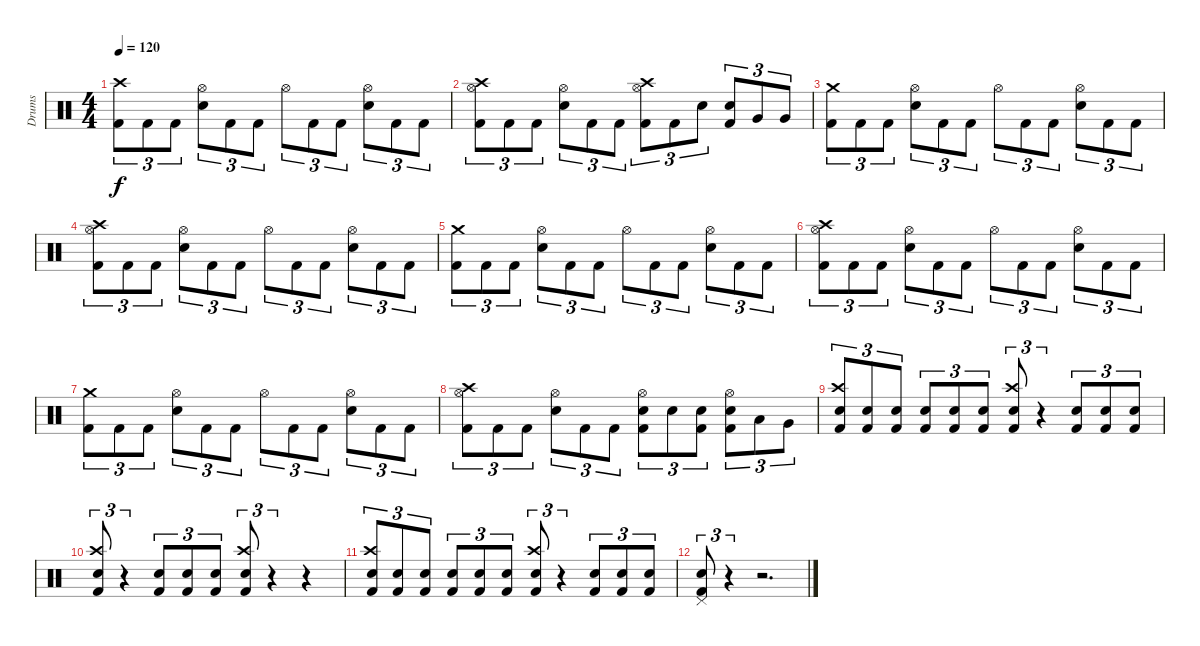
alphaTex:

\track ("Drums" "Drums") {instrument percussion}
\staff {score}
\articulation defaults
\ts (4 4)
\tempo 120
\clef neutral
\ks c
("Kick (hit) 2" "Crash high (hit)").8{tu (3 2) dy f} "Kick (hit) 2".8{tu (3 2)} "Kick (hit) 2".8{tu (3 2)} ("Snare (hit) 2" "Hi-Hat (open)").8{tu (3 2)} "Kick (hit) 2".8{tu (3 2)} "Kick (hit) 2".8{tu (3 2)} "Hi-Hat (open)".8{tu (3 2)} "Kick (hit) 2".8{tu (3 2)} "Kick (hit) 2".8{tu (3 2)} ("Snare (hit) 2" "Hi-Hat (open)").8{tu (3 2)} "Kick (hit) 2".8{tu (3 2)} "Kick (hit) 2".8{tu (3 2)} |
("Kick (hit) 2" "Hi-Hat (open)" "Crash high (hit)").8{tu (3 2)} "Kick (hit) 2".8{tu (3 2)} "Kick (hit) 2".8{tu (3 2)} ("Snare (hit) 2" "Hi-Hat (open)").8{tu (3 2)} "Kick (hit) 2".8{tu (3 2)} "Kick (hit) 2".8{tu (3 2)} ("Kick (hit) 2" "Hi-Hat (open)" "Crash high (hit)").8{tu (3 2)} "Kick (hit) 2".8{tu (3 2)} "Snare (hit) 2".8{tu (3 2)} ("Kick (hit) 2" "Snare (hit) 2").8{tu (3 2)} "Very Low Tom (hit)".8{tu (3 2)} "Very Low Tom (hit)".8{tu (3 2)} |
("Kick (hit) 2" "Crash medium (hit)").8{tu (3 2)} "Kick (hit) 2".8{tu (3 2)} "Kick (hit) 2".8{tu (3 2)} ("Snare (hit) 2" "Hi-Hat (open)").8{tu (3 2)} "Kick (hit) 2".8{tu (3 2)} "Kick (hit) 2".8{tu (3 2)} "Hi-Hat (open)".8{tu (3 2)} "Kick (hit) 2".8{tu (3 2)} "Kick (hit) 2".8{tu (3 2)} ("Snare (hit) 2" "Hi-Hat (open)").8{tu (3 2)} "Kick (hit) 2".8{tu (3 2)} "Kick (hit) 2".8{tu (3 2)} |
("Kick (hit) 2" "Hi-Hat (open)" "Crash high (hit)").8{tu (3 2)} "Kick (hit) 2".8{tu (3 2)} "Kick (hit) 2".8{tu (3 2)} ("Snare (hit) 2" "Hi-Hat (open)").8{tu (3 2)} "Kick (hit) 2".8{tu (3 2)} "Kick (hit) 2".8{tu (3 2)} "Hi-Hat (open)".8{tu (3 2)} "Kick (hit) 2".8{tu (3 2)} "Kick (hit) 2".8{tu (3 2)} ("Snare (hit) 2" "Hi-Hat (open)").8{tu (3 2)} "Kick (hit) 2".8{tu (3 2)} "Kick (hit) 2".8{tu (3 2)} |
("Kick (hit) 2" "Crash medium (hit)").8{tu (3 2)} "Kick (hit) 2".8{tu (3 2)} "Kick (hit) 2".8{tu (3 2)} ("Snare (hit) 2" "Hi-Hat (open)").8{tu (3 2)} "Kick (hit) 2".8{tu (3 2)} "Kick (hit) 2".8{tu (3 2)} "Hi-Hat (open)".8{tu (3 2)} "Kick (hit) 2".8{tu (3 2)} "Kick (hit) 2".8{tu (3 2)} ("Snare (hit) 2" "Hi-Hat (open)").8{tu (3 2)} "Kick (hit) 2".8{tu (3 2)} "Kick (hit) 2".8{tu (3 2)} |
("Kick (hit) 2" "Hi-Hat (open)" "Crash high (hit)").8{tu (3 2)} "Kick (hit) 2".8{tu (3 2)} "Kick (hit) 2".8{tu (3 2)} ("Snare (hit) 2" "Hi-Hat (open)").8{tu (3 2)} "Kick (hit) 2".8{tu (3 2)} "Kick (hit) 2".8{tu (3 2)} "Hi-Hat (open)".8{tu (3 2)} "Kick (hit) 2".8{tu (3 2)} "Kick (hit) 2".8{tu (3 2)} ("Snare (hit) 2" "Hi-Hat (open)").8{tu (3 2)} "Kick (hit) 2".8{tu (3 2)} "Kick (hit) 2".8{tu (3 2)} |
("Kick (hit) 2" "Crash medium (hit)").8{tu (3 2)} "Kick (hit) 2".8{tu (3 2)} "Kick (hit) 2".8{tu (3 2)} ("Snare (hit) 2" "Hi-Hat (open)").8{tu (3 2)} "Kick (hit) 2".8{tu (3 2)} "Kick (hit) 2".8{tu (3 2)} "Hi-Hat (open)".8{tu (3 2)} "Kick (hit) 2".8{tu (3 2)} "Kick (hit) 2".8{tu (3 2)} ("Snare (hit) 2" "Hi-Hat (open)").8{tu (3 2)} "Kick (hit) 2".8{tu (3 2)} "Kick (hit) 2".8{tu (3 2)} |
("Kick (hit) 2" "Hi-Hat (open)" "Crash high (hit)").8{tu (3 2)} "Kick (hit) 2".8{tu (3 2)} "Kick (hit) 2".8{tu (3 2)} ("Snare (hit) 2" "Hi-Hat (open)").8{tu (3 2)} "Kick (hit) 2".8{tu (3 2)} "Kick (hit) 2".8{tu (3 2)} ("Kick (hit) 2" "Snare (hit) 2" "Hi-Hat (open)").8{tu (3 2)} "Snare (hit) 2".8{tu (3 2)} ("Kick (hit) 2" "Snare (hit) 2").8{tu (3 2)} ("Kick (hit) 2" "Snare (hit) 2" "Hi-Hat (open)").8{tu (3 2)} "Low Tom (hit)".8{tu (3 2)} "Very Low Tom (hit)".8{tu (3 2)} |
("Kick (hit) 2" "Snare (hit) 2" "Crash high (hit)").8{tu (3 2)} ("Kick (hit) 2" "Snare (hit) 2").8{tu (3 2)} ("Kick (hit) 2" "Snare (hit) 2").8{tu (3 2)} ("Kick (hit) 2" "Snare (hit) 2").8{tu (3 2)} ("Kick (hit) 2" "Snare (hit) 2").8{tu (3 2)} ("Kick (hit) 2" "Snare (hit) 2").8{tu (3 2)} ("Kick (hit) 2" "Snare (hit) 2" "Crash high (hit)").8{tu (3 2)} r.4{tu (3 2)} ("Kick (hit) 2" "Snare (hit) 2").8{tu (3 2)} ("Kick (hit) 2" "Snare (hit) 2").8{tu (3 2)} ("Kick (hit) 2" "Snare (hit) 2").8{tu (3 2)} |
("Kick (hit) 2" "Snare (hit) 2" "Crash high (hit)").8{tu (3 2)} r.4{tu (3 2)} ("Kick (hit) 2" "Snare (hit) 2").8{tu (3 2)} ("Kick (hit) 2" "Snare (hit) 2").8{tu (3 2)} ("Kick (hit) 2" "Snare (hit) 2").8{tu (3 2)} ("Kick (hit) 2" "Snare (hit) 2" "Crash high (hit)").8{tu (3 2)} r.4{tu (3 2)} r.4 |
("Kick (hit) 2" "Snare (hit) 2" "Crash high (hit)").8{tu (3 2)} ("Kick (hit) 2" "Snare (hit) 2").8{tu (3 2)} ("Kick (hit) 2" "Snare (hit) 2").8{tu (3 2)} ("Kick (hit) 2" "Snare (hit) 2").8{tu (3 2)} ("Kick (hit) 2" "Snare (hit) 2").8{tu (3 2)} ("Kick (hit) 2" "Snare (hit) 2").8{tu (3 2)} ("Kick (hit) 2" "Snare (hit) 2" "Crash high (hit)").8{tu (3 2)} r.4{tu (3 2)} ("Kick (hit) 2" "Snare (hit) 2").8{tu (3 2)} ("Kick (hit) 2" "Snare (hit) 2").8{tu (3 2)} ("Kick (hit) 2" "Snare (hit) 2").8{tu (3 2)} |
("Kick (hit) 2" "Snare (hit) 2" "Pedal Hi-Hat (hit)").8{tu (3 2)} r.4{tu (3 2)} r.2{d}
